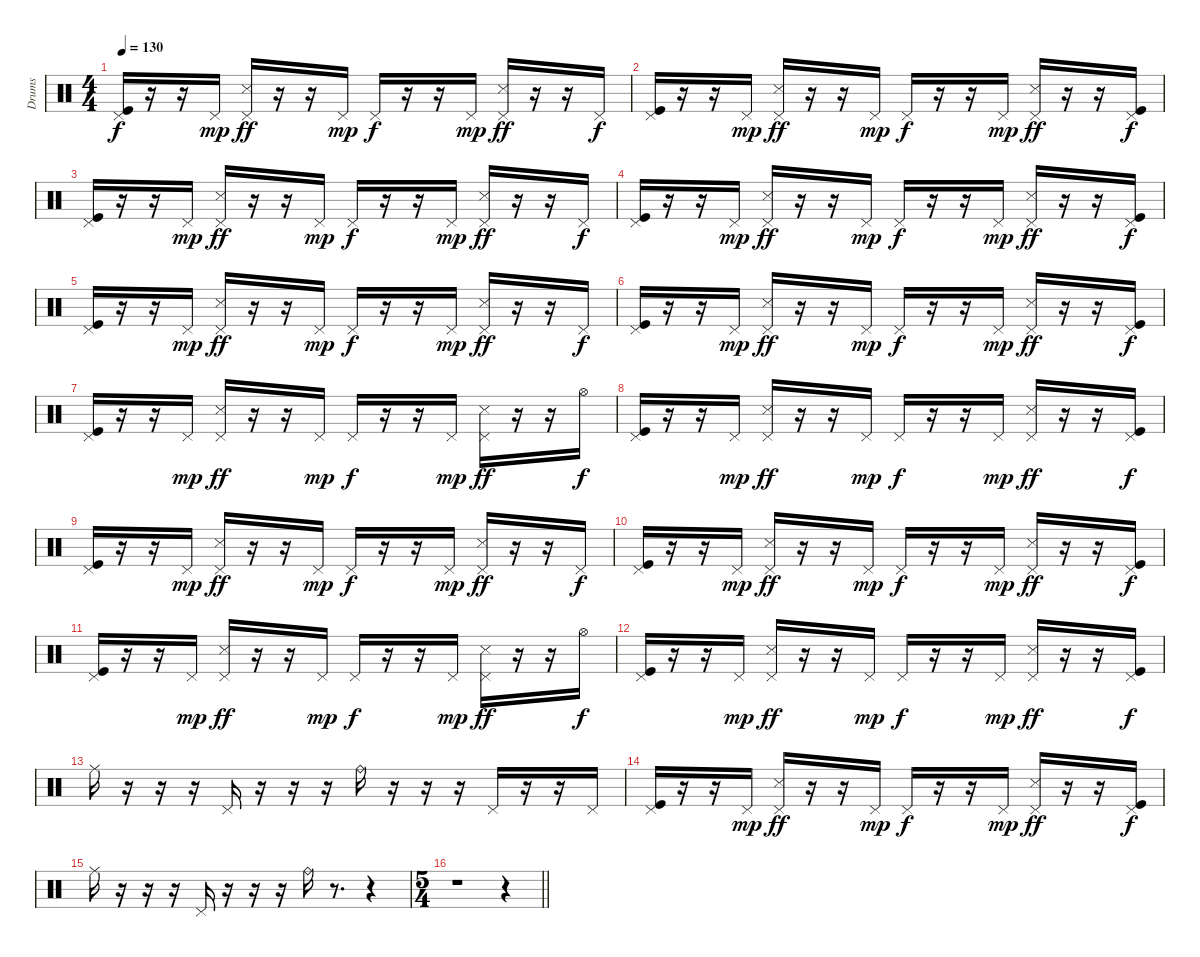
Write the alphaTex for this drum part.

\track ("Drums" "Drums") {instrument percussion}
\staff {score}
\articulation defaults
\ts (4 4)
\tempo 130
\clef neutral
\ks c
("Pedal Hi-Hat (hit)" "Kick (hit)").16{dy f} r.16 r.16 "Pedal Hi-Hat (hit)".16{dy mp} ("Pedal Hi-Hat (hit)" "Snare (side stick) 3").16{dy ff} r.16 r.16 "Pedal Hi-Hat (hit)".16{dy mp} "Pedal Hi-Hat (hit)".16{dy f} r.16 r.16 "Pedal Hi-Hat (hit)".16{dy mp} ("Pedal Hi-Hat (hit)" "Snare (side stick) 3").16{dy ff} r.16 r.16 "Pedal Hi-Hat (hit)".16{dy f} |
("Pedal Hi-Hat (hit)" "Kick (hit)").16 r.16 r.16 "Pedal Hi-Hat (hit)".16{dy mp} ("Pedal Hi-Hat (hit)" "Snare (side stick) 3").16{dy ff} r.16 r.16 "Pedal Hi-Hat (hit)".16{dy mp} "Pedal Hi-Hat (hit)".16{dy f} r.16 r.16 "Pedal Hi-Hat (hit)".16{dy mp} ("Pedal Hi-Hat (hit)" "Snare (side stick) 3").16{dy ff} r.16 r.16 ("Pedal Hi-Hat (hit)" "Kick (hit)").16{dy f} |
("Pedal Hi-Hat (hit)" "Kick (hit)").16 r.16 r.16 "Pedal Hi-Hat (hit)".16{dy mp} ("Pedal Hi-Hat (hit)" "Snare (side stick) 3").16{dy ff} r.16 r.16 "Pedal Hi-Hat (hit)".16{dy mp} "Pedal Hi-Hat (hit)".16{dy f} r.16 r.16 "Pedal Hi-Hat (hit)".16{dy mp} ("Pedal Hi-Hat (hit)" "Snare (side stick) 3").16{dy ff} r.16 r.16 "Pedal Hi-Hat (hit)".16{dy f} |
("Pedal Hi-Hat (hit)" "Kick (hit)").16 r.16 r.16 "Pedal Hi-Hat (hit)".16{dy mp} ("Pedal Hi-Hat (hit)" "Snare (side stick) 3").16{dy ff} r.16 r.16 "Pedal Hi-Hat (hit)".16{dy mp} "Pedal Hi-Hat (hit)".16{dy f} r.16 r.16 "Pedal Hi-Hat (hit)".16{dy mp} ("Pedal Hi-Hat (hit)" "Snare (side stick) 3").16{dy ff} r.16 r.16 ("Pedal Hi-Hat (hit)" "Kick (hit)").16{dy f} |
("Pedal Hi-Hat (hit)" "Kick (hit)").16 r.16 r.16 "Pedal Hi-Hat (hit)".16{dy mp} ("Pedal Hi-Hat (hit)" "Snare (side stick) 3").16{dy ff} r.16 r.16 "Pedal Hi-Hat (hit)".16{dy mp} "Pedal Hi-Hat (hit)".16{dy f} r.16 r.16 "Pedal Hi-Hat (hit)".16{dy mp} ("Pedal Hi-Hat (hit)" "Snare (side stick) 3").16{dy ff} r.16 r.16 "Pedal Hi-Hat (hit)".16{dy f} |
("Pedal Hi-Hat (hit)" "Kick (hit)").16 r.16 r.16 "Pedal Hi-Hat (hit)".16{dy mp} ("Pedal Hi-Hat (hit)" "Snare (side stick) 3").16{dy ff} r.16 r.16 "Pedal Hi-Hat (hit)".16{dy mp} "Pedal Hi-Hat (hit)".16{dy f} r.16 r.16 "Pedal Hi-Hat (hit)".16{dy mp} ("Pedal Hi-Hat (hit)" "Snare (side stick) 3").16{dy ff} r.16 r.16 ("Pedal Hi-Hat (hit)" "Kick (hit)").16{dy f} |
("Pedal Hi-Hat (hit)" "Kick (hit)").16 r.16 r.16 "Pedal Hi-Hat (hit)".16{dy mp} ("Pedal Hi-Hat (hit)" "Snare (side stick) 3").16{dy ff} r.16 r.16 "Pedal Hi-Hat (hit)".16{dy mp} "Pedal Hi-Hat (hit)".16{dy f} r.16 r.16 "Pedal Hi-Hat (hit)".16{dy mp} ("Pedal Hi-Hat (hit)" "Snare (side stick) 3").16{dy ff} r.16 r.16 "Hi-Hat (open)".16{dy f} |
("Pedal Hi-Hat (hit)" "Kick (hit)").16 r.16 r.16 "Pedal Hi-Hat (hit)".16{dy mp} ("Pedal Hi-Hat (hit)" "Snare (side stick) 3").16{dy ff} r.16 r.16 "Pedal Hi-Hat (hit)".16{dy mp} "Pedal Hi-Hat (hit)".16{dy f} r.16 r.16 "Pedal Hi-Hat (hit)".16{dy mp} ("Pedal Hi-Hat (hit)" "Snare (side stick) 3").16{dy ff} r.16 r.16 ("Pedal Hi-Hat (hit)" "Kick (hit)").16{dy f} |
("Pedal Hi-Hat (hit)" "Kick (hit)").16 r.16 r.16 "Pedal Hi-Hat (hit)".16{dy mp} ("Pedal Hi-Hat (hit)" "Snare (side stick) 3").16{dy ff} r.16 r.16 "Pedal Hi-Hat (hit)".16{dy mp} "Pedal Hi-Hat (hit)".16{dy f} r.16 r.16 "Pedal Hi-Hat (hit)".16{dy mp} ("Pedal Hi-Hat (hit)" "Snare (side stick) 3").16{dy ff} r.16 r.16 "Pedal Hi-Hat (hit)".16{dy f} |
("Pedal Hi-Hat (hit)" "Kick (hit)").16 r.16 r.16 "Pedal Hi-Hat (hit)".16{dy mp} ("Pedal Hi-Hat (hit)" "Snare (side stick) 3").16{dy ff} r.16 r.16 "Pedal Hi-Hat (hit)".16{dy mp} "Pedal Hi-Hat (hit)".16{dy f} r.16 r.16 "Pedal Hi-Hat (hit)".16{dy mp} ("Pedal Hi-Hat (hit)" "Snare (side stick) 3").16{dy ff} r.16 r.16 ("Pedal Hi-Hat (hit)" "Kick (hit)").16{dy f} |
("Pedal Hi-Hat (hit)" "Kick (hit)").16 r.16 r.16 "Pedal Hi-Hat (hit)".16{dy mp} ("Pedal Hi-Hat (hit)" "Snare (side stick) 3").16{dy ff} r.16 r.16 "Pedal Hi-Hat (hit)".16{dy mp} "Pedal Hi-Hat (hit)".16{dy f} r.16 r.16 "Pedal Hi-Hat (hit)".16{dy mp} ("Pedal Hi-Hat (hit)" "Snare (side stick) 3").16{dy ff} r.16 r.16 "Hi-Hat (open)".16{dy f} |
("Pedal Hi-Hat (hit)" "Kick (hit)").16 r.16 r.16 "Pedal Hi-Hat (hit)".16{dy mp} ("Pedal Hi-Hat (hit)" "Snare (side stick) 3").16{dy ff} r.16 r.16 "Pedal Hi-Hat (hit)".16{dy mp} "Pedal Hi-Hat (hit)".16{dy f} r.16 r.16 "Pedal Hi-Hat (hit)".16{dy mp} ("Pedal Hi-Hat (hit)" "Snare (side stick) 3").16{dy ff} r.16 r.16 ("Pedal Hi-Hat (hit)" "Kick (hit)").16{dy f} |
"Ride (middle)".16 r.16 r.16 r.16 "Pedal Hi-Hat (hit)".16 r.16 r.16 r.16 "Ride (bell)".16 r.16 r.16 r.16 "Pedal Hi-Hat (hit)".16 r.16 r.16 "Pedal Hi-Hat (hit)".16 |
("Pedal Hi-Hat (hit)" "Kick (hit)").16 r.16 r.16 "Pedal Hi-Hat (hit)".16{dy mp} ("Pedal Hi-Hat (hit)" "Snare (side stick) 3").16{dy ff} r.16 r.16 "Pedal Hi-Hat (hit)".16{dy mp} "Pedal Hi-Hat (hit)".16{dy f} r.16 r.16 "Pedal Hi-Hat (hit)".16{dy mp} ("Pedal Hi-Hat (hit)" "Snare (side stick) 3").16{dy ff} r.16 r.16 ("Pedal Hi-Hat (hit)" "Kick (hit)").16{dy f} |
"Ride (middle)".16 r.16 r.16 r.16 "Pedal Hi-Hat (hit)".16 r.16 r.16 r.16 "Ride (bell)".16 r.8{d} r.4 |
\ts (5 4)
\barLineRight lightlight
r.1 r.4
